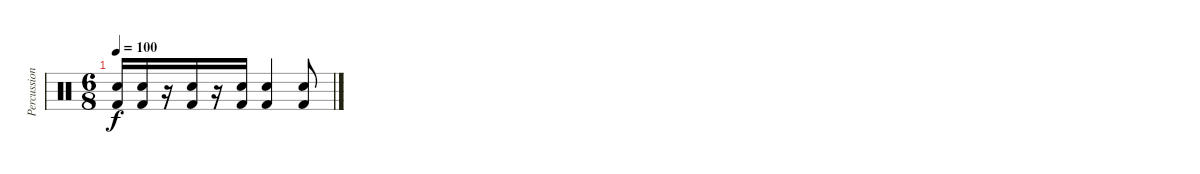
\track ("Percussion" "Percussion") {instrument percussion}
\staff {score}
\articulation defaults
\ts (6 8)
\tempo 100
\clef neutral
\ks c
("Snare (hit) 2" "Kick (hit) 2").16{dy f} ("Snare (hit) 2" "Kick (hit) 2").16 r.16 ("Snare (hit) 2" "Kick (hit) 2").16 r.16 ("Snare (hit) 2" "Kick (hit) 2").16 ("Snare (hit) 2" "Kick (hit) 2").4 ("Snare (hit) 2" "Kick (hit) 2").8
